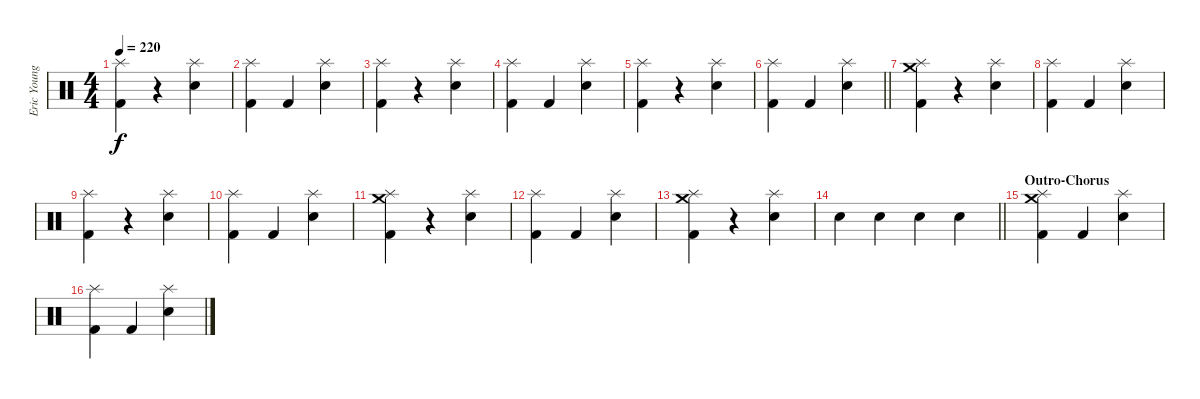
\track ("Eric Young (Drums)" "Eric Young") {instrument percussion}
\staff {score}
\articulation defaults
\ts (4 4)
\tempo 220
\clef neutral
\ks c
("Splash (hit)" "Kick (hit) 2").4{dy f} r.4 ("Splash (hit)" "Snare (hit) 2").4 |
("Splash (hit)" "Kick (hit) 2").4 "Kick (hit) 2".4 ("Splash (hit)" "Snare (hit) 2").4 |
("Splash (hit)" "Kick (hit) 2").4 r.4 ("Splash (hit)" "Snare (hit) 2").4 |
("Splash (hit)" "Kick (hit) 2").4 "Kick (hit) 2".4 ("Splash (hit)" "Snare (hit) 2").4 |
("Splash (hit)" "Kick (hit) 2").4 r.4 ("Splash (hit)" "Snare (hit) 2").4 |
\barLineRight lightlight
("Splash (hit)" "Kick (hit) 2").4 "Kick (hit) 2".4 ("Splash (hit)" "Snare (hit) 2").4 |
("Splash (hit)" "Kick (hit) 2" "Crash medium (hit)").4 r.4 ("Splash (hit)" "Snare (hit) 2").4 |
("Splash (hit)" "Kick (hit) 2").4 "Kick (hit) 2".4 ("Splash (hit)" "Snare (hit) 2").4 |
("Splash (hit)" "Kick (hit) 2").4 r.4 ("Splash (hit)" "Snare (hit) 2").4 |
("Splash (hit)" "Kick (hit) 2").4 "Kick (hit) 2".4 ("Splash (hit)" "Snare (hit) 2").4 |
("Splash (hit)" "Kick (hit) 2" "Crash medium (hit)").4 r.4 ("Splash (hit)" "Snare (hit) 2").4 |
("Splash (hit)" "Kick (hit) 2").4 "Kick (hit) 2".4 ("Splash (hit)" "Snare (hit) 2").4 |
("Splash (hit)" "Kick (hit) 2" "Crash medium (hit)").4 r.4 ("Splash (hit)" "Snare (hit) 2").4 |
\barLineRight lightlight "Snare (hit) 2".4 "Snare (hit) 2".4 "Snare (hit) 2".4 "Snare (hit) 2".4
|
\section ("" "Outro-Chorus")
("Splash (hit)" "Kick (hit) 2" "Crash medium (hit)").4 "Kick (hit) 2".4 ("Splash (hit)" "Snare (hit) 2").4 |
("Splash (hit)" "Kick (hit) 2").4 "Kick (hit) 2".4 ("Splash (hit)" "Snare (hit) 2").4
